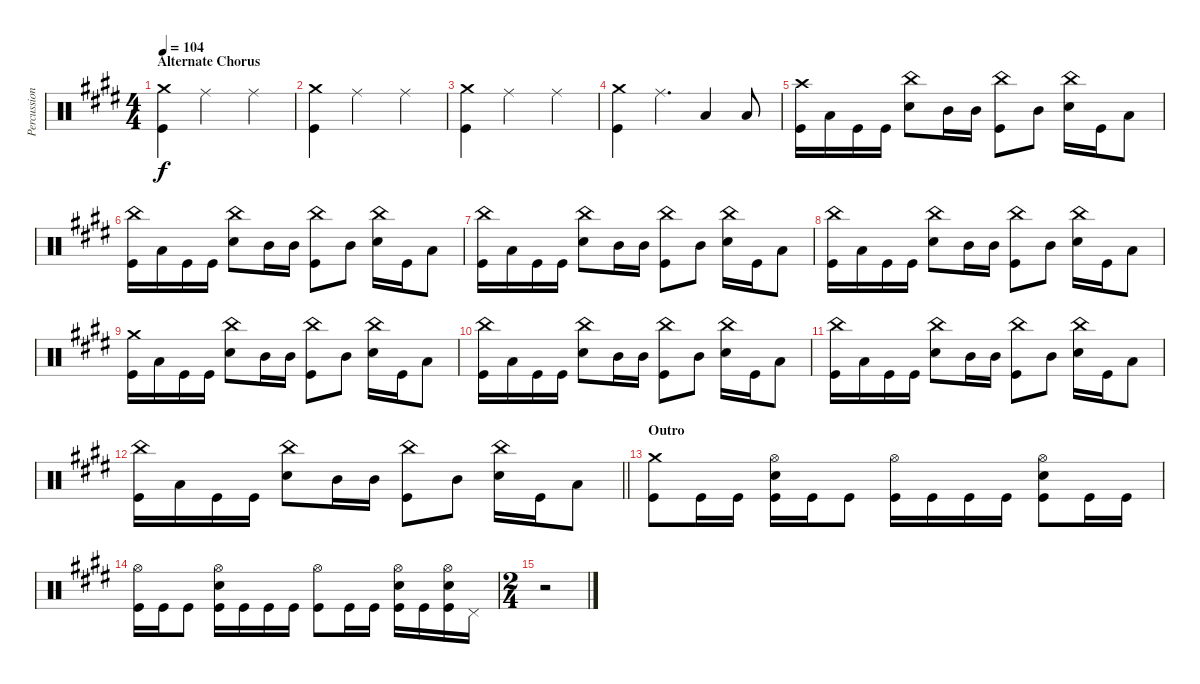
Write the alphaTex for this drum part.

\track ("Percussion" "Percussion") {instrument percussion}
\staff {score}
\articulation defaults
\ts (4 4)
\section ("" "Alternate Chorus")
\tempo 104
\clef neutral
\ks e
("Crash medium (hit)" "Kick (hit)").4{dy f} "Ride (middle)".2 "Ride (middle)".4 |
("Crash medium (hit)" "Kick (hit)").4 "Ride (middle)".2 "Ride (middle)".4 |
("Crash medium (hit)" "Kick (hit)").4 "Ride (middle)".2 "Ride (middle)".4 |
("Crash medium (hit)" "Kick (hit)").4 "Ride (middle)".4{d} "Low Floor Tom (hit)".4 "Low Floor Tom (hit)".8 |
("Crash high (hit)" "Kick (hit)").16 "Low Tom (hit)".16 "Kick (hit)".16 "Kick (hit)".16 ("China (hit)" "Electric Snare (hit)").8 "Mid Tom (hit)".16 "Mid Tom (hit)".16 ("China (hit)" "Kick (hit)").8 "Mid Tom (hit)".8 ("China (hit)" "Electric Snare (hit)").16 "Kick (hit)".16 "Low Tom (hit)".8 |
("China (hit)" "Kick (hit)").16 "Low Tom (hit)".16 "Kick (hit)".16 "Kick (hit)".16 ("China (hit)" "Electric Snare (hit)").8 "Mid Tom (hit)".16 "Mid Tom (hit)".16 ("China (hit)" "Kick (hit)").8 "Mid Tom (hit)".8 ("China (hit)" "Electric Snare (hit)").16 "Kick (hit)".16 "Low Tom (hit)".8 |
("China (hit)" "Kick (hit)").16 "Low Tom (hit)".16 "Kick (hit)".16 "Kick (hit)".16 ("China (hit)" "Electric Snare (hit)").8 "Mid Tom (hit)".16 "Mid Tom (hit)".16 ("China (hit)" "Kick (hit)").8 "Mid Tom (hit)".8 ("China (hit)" "Electric Snare (hit)").16 "Kick (hit)".16 "Low Tom (hit)".8 |
("China (hit)" "Kick (hit)").16 "Low Tom (hit)".16 "Kick (hit)".16 "Kick (hit)".16 ("China (hit)" "Electric Snare (hit)").8 "Mid Tom (hit)".16 "Mid Tom (hit)".16 ("China (hit)" "Kick (hit)").8 "Mid Tom (hit)".8 ("China (hit)" "Electric Snare (hit)").16 "Kick (hit)".16 "Low Tom (hit)".8 |
("Crash medium (hit)" "Kick (hit)").16 "Low Tom (hit)".16 "Kick (hit)".16 "Kick (hit)".16 ("China (hit)" "Electric Snare (hit)").8 "Mid Tom (hit)".16 "Mid Tom (hit)".16 ("China (hit)" "Kick (hit)").8 "Mid Tom (hit)".8 ("China (hit)" "Electric Snare (hit)").16 "Kick (hit)".16 "Low Tom (hit)".8 |
("China (hit)" "Kick (hit)").16 "Low Tom (hit)".16 "Kick (hit)".16 "Kick (hit)".16 ("China (hit)" "Electric Snare (hit)").8 "Mid Tom (hit)".16 "Mid Tom (hit)".16 ("China (hit)" "Kick (hit)").8 "Mid Tom (hit)".8 ("China (hit)" "Electric Snare (hit)").16 "Kick (hit)".16 "Low Tom (hit)".8 |
("China (hit)" "Kick (hit)").16 "Low Tom (hit)".16 "Kick (hit)".16 "Kick (hit)".16 ("China (hit)" "Electric Snare (hit)").8 "Mid Tom (hit)".16 "Mid Tom (hit)".16 ("China (hit)" "Kick (hit)").8 "Mid Tom (hit)".8 ("China (hit)" "Electric Snare (hit)").16 "Kick (hit)".16 "Low Tom (hit)".8 |
\barLineRight lightlight
("China (hit)" "Kick (hit)").16 "Low Tom (hit)".16 "Kick (hit)".16 "Kick (hit)".16 ("China (hit)" "Electric Snare (hit)").8 "Mid Tom (hit)".16 "Mid Tom (hit)".16 ("China (hit)" "Kick (hit)").8 "Mid Tom (hit)".8 ("China (hit)" "Electric Snare (hit)").16 "Kick (hit)".16 "Low Tom (hit)".8 |
\section ("" "Outro")
("Crash medium (hit)" "Kick (hit)").8 "Kick (hit)".16 "Kick (hit)".16 ("Hi-Hat (open)" "Electric Snare (hit)" "Kick (hit)").16 "Kick (hit)".16 "Kick (hit)".8 ("Hi-Hat (open)" "Kick (hit)").16 "Kick (hit)".16 "Kick (hit)".16 "Kick (hit)".16 ("Hi-Hat (open)" "Electric Snare (hit)" "Kick (hit)").8 "Kick (hit)".16 "Kick (hit)".16 |
("Hi-Hat (open)" "Kick (hit)").16 "Kick (hit)".16 "Kick (hit)".8 ("Hi-Hat (open)" "Electric Snare (hit)" "Kick (hit)").16 "Kick (hit)".16 "Kick (hit)".16 "Kick (hit)".16 ("Hi-Hat (open)" "Kick (hit)").8 "Kick (hit)".16 "Kick (hit)".16 ("Hi-Hat (open)" "Electric Snare (hit)" "Kick (hit)").16 "Kick (hit)".16 ("Hi-Hat (open)" "Electric Snare (hit)" "Kick (hit)").16 "Pedal Hi-Hat (hit)".16 |
\ts (2 4)
r.2
